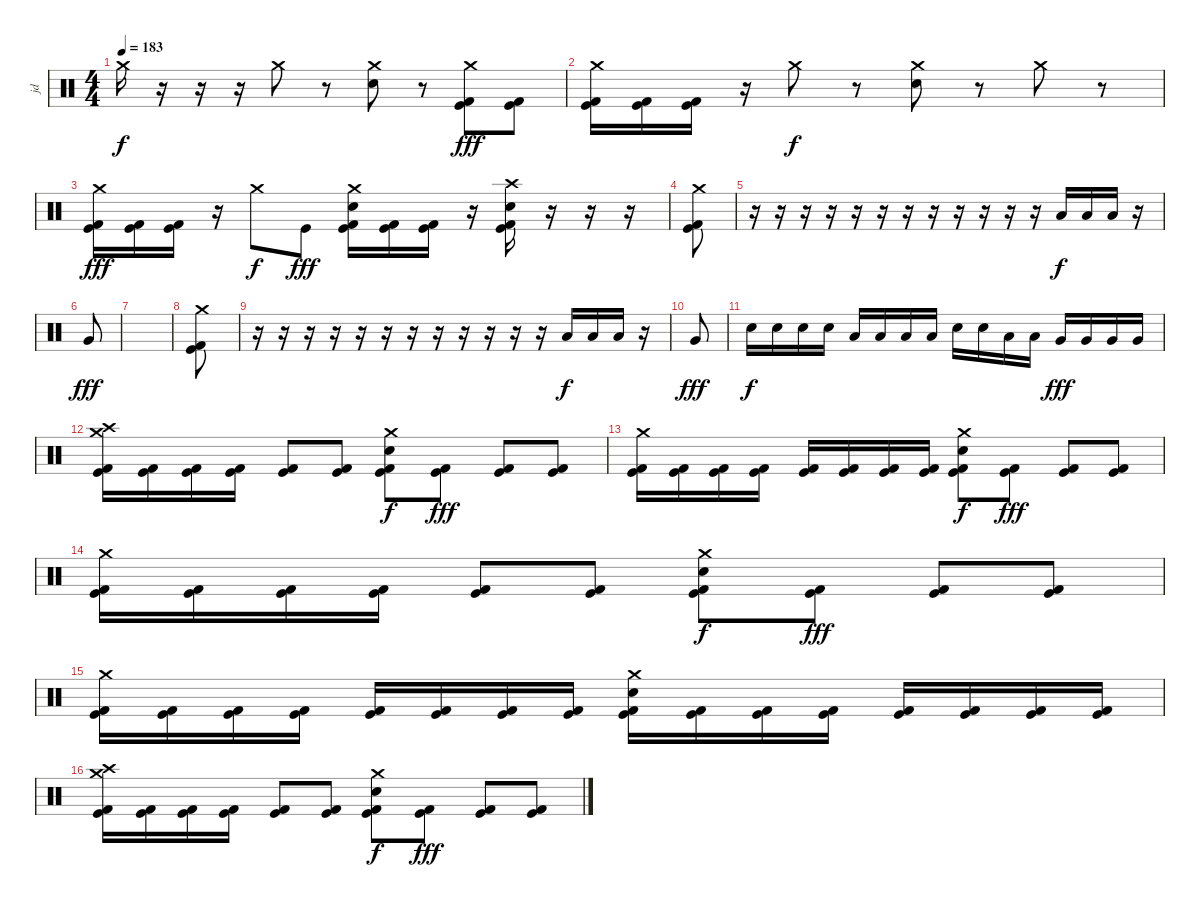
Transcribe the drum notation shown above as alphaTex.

\track ("jd" "jd") {instrument percussion}
\staff {score}
\articulation defaults
\ts (4 4)
\tempo 183
\clef neutral
\ks c "Crash medium (hit)".16{dy f}
r.16 r.16 r.16 "Crash medium (hit)".8 r.8 ("Electric Snare (hit)" "Crash medium (hit)").8 r.8 ("Kick (hit)" "Kick (hit) 2" "Crash medium (hit)").8{dy fff} ("Kick (hit)" "Kick (hit) 2").8 |
("Kick (hit)" "Kick (hit) 2" "Crash medium (hit)").16 ("Kick (hit)" "Kick (hit) 2").16 ("Kick (hit)" "Kick (hit) 2").16 r.16 "Crash medium (hit)".8{dy f} r.8 ("Electric Snare (hit)" "Crash medium (hit)").8 r.8 "Crash medium (hit)".8 r.8 |
("Kick (hit)" "Kick (hit) 2" "Crash medium (hit)").16{dy fff} ("Kick (hit)" "Kick (hit) 2").16 ("Kick (hit)" "Kick (hit) 2").16 r.16 "Crash medium (hit)".8{dy f} "Kick (hit)".8{dy fff} ("Kick (hit)" "Kick (hit) 2" "Electric Snare (hit)" "Crash medium (hit)").16 ("Kick (hit)" "Kick (hit) 2").16 ("Kick (hit)" "Kick (hit) 2").16 r.16 ("Kick (hit)" "Kick (hit) 2" "Electric Snare (hit)" "Crash high (hit)").16 r.16 r.16 r.16 |
("Kick (hit)" "Kick (hit) 2" "Crash medium (hit)").8 |
r.16 r.16 r.16 r.16 r.16 r.16 r.16 r.16 r.16 r.16 r.16 r.16 "Low Tom (hit)".16{dy f} "Low Tom (hit)".16 "Low Tom (hit)".16 r.16 |
"Very Low Tom (hit)".8{dy fff} |
|
("Kick (hit)" "Kick (hit) 2" "Crash medium (hit)").8 |
r.16 r.16 r.16 r.16 r.16 r.16 r.16 r.16 r.16 r.16 r.16 r.16 "Low Tom (hit)".16{dy f} "Low Tom (hit)".16 "Low Tom (hit)".16 r.16 |
"Very Low Tom (hit)".8{dy fff} |
"Electric Snare (hit)".16{dy f} "Electric Snare (hit)".16 "Electric Snare (hit)".16 "Electric Snare (hit)".16 "Low Tom (hit)".16 "Low Tom (hit)".16 "Low Tom (hit)".16 "Low Tom (hit)".16 "Electric Snare (hit)".16 "Electric Snare (hit)".16 "Low Tom (hit)".16 "Low Tom (hit)".16 "Very Low Tom (hit)".16{dy fff} "Very Low Tom (hit)".16 "Very Low Tom (hit)".16 "Very Low Tom (hit)".16 |
("Kick (hit)" "Kick (hit) 2" "Crash high (hit)" "Crash medium (hit)").16 ("Kick (hit)" "Kick (hit) 2").16 ("Kick (hit)" "Kick (hit) 2").16 ("Kick (hit)" "Kick (hit) 2").16 ("Kick (hit)" "Kick (hit) 2").8 ("Kick (hit)" "Kick (hit) 2").8 ("Kick (hit)" "Kick (hit) 2" "Electric Snare (hit)" "Crash medium (hit)").8{dy f} ("Kick (hit)" "Kick (hit) 2").8{dy fff} ("Kick (hit)" "Kick (hit) 2").8 ("Kick (hit)" "Kick (hit) 2").8 |
("Kick (hit)" "Kick (hit) 2" "Crash medium (hit)").16 ("Kick (hit)" "Kick (hit) 2").16 ("Kick (hit)" "Kick (hit) 2").16 ("Kick (hit)" "Kick (hit) 2").16 ("Kick (hit)" "Kick (hit) 2").16 ("Kick (hit)" "Kick (hit) 2").16 ("Kick (hit)" "Kick (hit) 2").16 ("Kick (hit)" "Kick (hit) 2").16 ("Kick (hit)" "Kick (hit) 2" "Electric Snare (hit)" "Crash medium (hit)").8{dy f} ("Kick (hit)" "Kick (hit) 2").8{dy fff} ("Kick (hit)" "Kick (hit) 2").8 ("Kick (hit)" "Kick (hit) 2").8 |
("Kick (hit)" "Kick (hit) 2" "Crash medium (hit)").16 ("Kick (hit)" "Kick (hit) 2").16 ("Kick (hit)" "Kick (hit) 2").16 ("Kick (hit)" "Kick (hit) 2").16 ("Kick (hit)" "Kick (hit) 2").8 ("Kick (hit)" "Kick (hit) 2").8 ("Kick (hit)" "Kick (hit) 2" "Electric Snare (hit)" "Crash medium (hit)").8{dy f} ("Kick (hit)" "Kick (hit) 2").8{dy fff} ("Kick (hit)" "Kick (hit) 2").8 ("Kick (hit)" "Kick (hit) 2").8 |
("Kick (hit)" "Kick (hit) 2" "Crash medium (hit)").16 ("Kick (hit)" "Kick (hit) 2").16 ("Kick (hit)" "Kick (hit) 2").16 ("Kick (hit)" "Kick (hit) 2").16 ("Kick (hit)" "Kick (hit) 2").16 ("Kick (hit)" "Kick (hit) 2").16 ("Kick (hit)" "Kick (hit) 2").16 ("Kick (hit)" "Kick (hit) 2").16 ("Kick (hit)" "Kick (hit) 2" "Electric Snare (hit)" "Crash medium (hit)").16 ("Kick (hit)" "Kick (hit) 2").16 ("Kick (hit)" "Kick (hit) 2").16 ("Kick (hit)" "Kick (hit) 2").16 ("Kick (hit)" "Kick (hit) 2").16 ("Kick (hit)" "Kick (hit) 2").16 ("Kick (hit)" "Kick (hit) 2").16 ("Kick (hit)" "Kick (hit) 2").16 |
("Kick (hit)" "Kick (hit) 2" "Crash high (hit)" "Crash medium (hit)").16 ("Kick (hit)" "Kick (hit) 2").16 ("Kick (hit)" "Kick (hit) 2").16 ("Kick (hit)" "Kick (hit) 2").16 ("Kick (hit)" "Kick (hit) 2").8 ("Kick (hit)" "Kick (hit) 2").8 ("Kick (hit)" "Kick (hit) 2" "Electric Snare (hit)" "Crash medium (hit)").8{dy f} ("Kick (hit)" "Kick (hit) 2").8{dy fff} ("Kick (hit)" "Kick (hit) 2").8 ("Kick (hit)" "Kick (hit) 2").8
